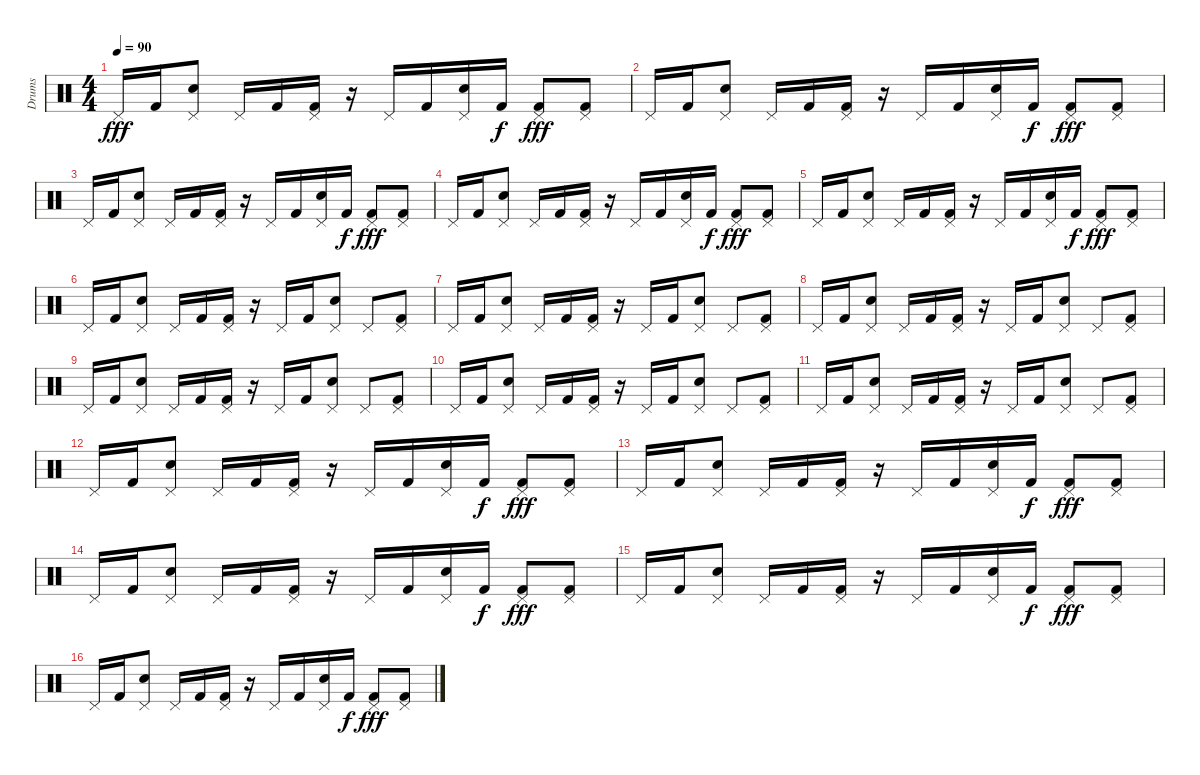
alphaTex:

\track ("Drums" "Drums") {instrument percussion}
\staff {score}
\articulation defaults
\ts (4 4)
\tempo 90
\clef neutral
\ks c "Pedal Hi-Hat (hit)".16{dy fff} "Kick (hit) 2".16
("Electric Snare (hit)" "Pedal Hi-Hat (hit)").8 "Pedal Hi-Hat (hit)".16 "Kick (hit) 2".16 ("Kick (hit) 2" "Pedal Hi-Hat (hit)").16 r.16 "Pedal Hi-Hat (hit)".16 "Kick (hit) 2".16 ("Pedal Hi-Hat (hit)" "Electric Snare (hit)").16 "Kick (hit) 2".16{dy f} ("Kick (hit) 2" "Pedal Hi-Hat (hit)").8{dy fff} ("Kick (hit) 2" "Pedal Hi-Hat (hit)").8 |
"Pedal Hi-Hat (hit)".16 "Kick (hit) 2".16 ("Electric Snare (hit)" "Pedal Hi-Hat (hit)").8 "Pedal Hi-Hat (hit)".16 "Kick (hit) 2".16 ("Kick (hit) 2" "Pedal Hi-Hat (hit)").16 r.16 "Pedal Hi-Hat (hit)".16 "Kick (hit) 2".16 ("Pedal Hi-Hat (hit)" "Electric Snare (hit)").16 "Kick (hit) 2".16{dy f} ("Kick (hit) 2" "Pedal Hi-Hat (hit)").8{dy fff} ("Kick (hit) 2" "Pedal Hi-Hat (hit)").8 |
"Pedal Hi-Hat (hit)".16 "Kick (hit) 2".16 ("Electric Snare (hit)" "Pedal Hi-Hat (hit)").8 "Pedal Hi-Hat (hit)".16 "Kick (hit) 2".16 ("Kick (hit) 2" "Pedal Hi-Hat (hit)").16 r.16 "Pedal Hi-Hat (hit)".16 "Kick (hit) 2".16 ("Pedal Hi-Hat (hit)" "Electric Snare (hit)").16 "Kick (hit) 2".16{dy f} ("Kick (hit) 2" "Pedal Hi-Hat (hit)").8{dy fff} ("Kick (hit) 2" "Pedal Hi-Hat (hit)").8 |
"Pedal Hi-Hat (hit)".16 "Kick (hit) 2".16 ("Electric Snare (hit)" "Pedal Hi-Hat (hit)").8 "Pedal Hi-Hat (hit)".16 "Kick (hit) 2".16 ("Kick (hit) 2" "Pedal Hi-Hat (hit)").16 r.16 "Pedal Hi-Hat (hit)".16 "Kick (hit) 2".16 ("Pedal Hi-Hat (hit)" "Electric Snare (hit)").16 "Kick (hit) 2".16{dy f} ("Kick (hit) 2" "Pedal Hi-Hat (hit)").8{dy fff} ("Kick (hit) 2" "Pedal Hi-Hat (hit)").8 |
"Pedal Hi-Hat (hit)".16 "Kick (hit) 2".16 ("Electric Snare (hit)" "Pedal Hi-Hat (hit)").8 "Pedal Hi-Hat (hit)".16 "Kick (hit) 2".16 ("Kick (hit) 2" "Pedal Hi-Hat (hit)").16 r.16 "Pedal Hi-Hat (hit)".16 "Kick (hit) 2".16 ("Pedal Hi-Hat (hit)" "Electric Snare (hit)").16 "Kick (hit) 2".16{dy f} ("Kick (hit) 2" "Pedal Hi-Hat (hit)").8{dy fff} ("Kick (hit) 2" "Pedal Hi-Hat (hit)").8 |
"Pedal Hi-Hat (hit)".16 "Kick (hit) 2".16 ("Electric Snare (hit)" "Pedal Hi-Hat (hit)").8 "Pedal Hi-Hat (hit)".16 "Kick (hit) 2".16 ("Kick (hit) 2" "Pedal Hi-Hat (hit)").16 r.16 "Pedal Hi-Hat (hit)".16 "Kick (hit) 2".16 ("Pedal Hi-Hat (hit)" "Electric Snare (hit)").8 "Pedal Hi-Hat (hit)".8 ("Kick (hit) 2" "Pedal Hi-Hat (hit)").8 |
"Pedal Hi-Hat (hit)".16 "Kick (hit) 2".16 ("Electric Snare (hit)" "Pedal Hi-Hat (hit)").8 "Pedal Hi-Hat (hit)".16 "Kick (hit) 2".16 ("Kick (hit) 2" "Pedal Hi-Hat (hit)").16 r.16 "Pedal Hi-Hat (hit)".16 "Kick (hit) 2".16 ("Pedal Hi-Hat (hit)" "Electric Snare (hit)").8 "Pedal Hi-Hat (hit)".8 ("Kick (hit) 2" "Pedal Hi-Hat (hit)").8 |
"Pedal Hi-Hat (hit)".16 "Kick (hit) 2".16 ("Electric Snare (hit)" "Pedal Hi-Hat (hit)").8 "Pedal Hi-Hat (hit)".16 "Kick (hit) 2".16 ("Kick (hit) 2" "Pedal Hi-Hat (hit)").16 r.16 "Pedal Hi-Hat (hit)".16 "Kick (hit) 2".16 ("Pedal Hi-Hat (hit)" "Electric Snare (hit)").8 "Pedal Hi-Hat (hit)".8 ("Kick (hit) 2" "Pedal Hi-Hat (hit)").8 |
"Pedal Hi-Hat (hit)".16 "Kick (hit) 2".16 ("Electric Snare (hit)" "Pedal Hi-Hat (hit)").8 "Pedal Hi-Hat (hit)".16 "Kick (hit) 2".16 ("Kick (hit) 2" "Pedal Hi-Hat (hit)").16 r.16 "Pedal Hi-Hat (hit)".16 "Kick (hit) 2".16 ("Pedal Hi-Hat (hit)" "Electric Snare (hit)").8 "Pedal Hi-Hat (hit)".8 ("Kick (hit) 2" "Pedal Hi-Hat (hit)").8 |
"Pedal Hi-Hat (hit)".16 "Kick (hit) 2".16 ("Electric Snare (hit)" "Pedal Hi-Hat (hit)").8 "Pedal Hi-Hat (hit)".16 "Kick (hit) 2".16 ("Kick (hit) 2" "Pedal Hi-Hat (hit)").16 r.16 "Pedal Hi-Hat (hit)".16 "Kick (hit) 2".16 ("Pedal Hi-Hat (hit)" "Electric Snare (hit)").8 "Pedal Hi-Hat (hit)".8 ("Kick (hit) 2" "Pedal Hi-Hat (hit)").8 |
"Pedal Hi-Hat (hit)".16 "Kick (hit) 2".16 ("Electric Snare (hit)" "Pedal Hi-Hat (hit)").8 "Pedal Hi-Hat (hit)".16 "Kick (hit) 2".16 ("Kick (hit) 2" "Pedal Hi-Hat (hit)").16 r.16 "Pedal Hi-Hat (hit)".16 "Kick (hit) 2".16 ("Pedal Hi-Hat (hit)" "Electric Snare (hit)").8 "Pedal Hi-Hat (hit)".8 ("Kick (hit) 2" "Pedal Hi-Hat (hit)").8 |
"Pedal Hi-Hat (hit)".16 "Kick (hit) 2".16 ("Electric Snare (hit)" "Pedal Hi-Hat (hit)").8 "Pedal Hi-Hat (hit)".16 "Kick (hit) 2".16 ("Kick (hit) 2" "Pedal Hi-Hat (hit)").16 r.16 "Pedal Hi-Hat (hit)".16 "Kick (hit) 2".16 ("Pedal Hi-Hat (hit)" "Electric Snare (hit)").16 "Kick (hit) 2".16{dy f} ("Kick (hit) 2" "Pedal Hi-Hat (hit)").8{dy fff} ("Kick (hit) 2" "Pedal Hi-Hat (hit)").8 |
"Pedal Hi-Hat (hit)".16 "Kick (hit) 2".16 ("Electric Snare (hit)" "Pedal Hi-Hat (hit)").8 "Pedal Hi-Hat (hit)".16 "Kick (hit) 2".16 ("Kick (hit) 2" "Pedal Hi-Hat (hit)").16 r.16 "Pedal Hi-Hat (hit)".16 "Kick (hit) 2".16 ("Pedal Hi-Hat (hit)" "Electric Snare (hit)").16 "Kick (hit) 2".16{dy f} ("Kick (hit) 2" "Pedal Hi-Hat (hit)").8{dy fff} ("Kick (hit) 2" "Pedal Hi-Hat (hit)").8 |
"Pedal Hi-Hat (hit)".16 "Kick (hit) 2".16 ("Electric Snare (hit)" "Pedal Hi-Hat (hit)").8 "Pedal Hi-Hat (hit)".16 "Kick (hit) 2".16 ("Kick (hit) 2" "Pedal Hi-Hat (hit)").16 r.16 "Pedal Hi-Hat (hit)".16 "Kick (hit) 2".16 ("Pedal Hi-Hat (hit)" "Electric Snare (hit)").16 "Kick (hit) 2".16{dy f} ("Kick (hit) 2" "Pedal Hi-Hat (hit)").8{dy fff} ("Kick (hit) 2" "Pedal Hi-Hat (hit)").8 |
"Pedal Hi-Hat (hit)".16 "Kick (hit) 2".16 ("Electric Snare (hit)" "Pedal Hi-Hat (hit)").8 "Pedal Hi-Hat (hit)".16 "Kick (hit) 2".16 ("Kick (hit) 2" "Pedal Hi-Hat (hit)").16 r.16 "Pedal Hi-Hat (hit)".16 "Kick (hit) 2".16 ("Pedal Hi-Hat (hit)" "Electric Snare (hit)").16 "Kick (hit) 2".16{dy f} ("Kick (hit) 2" "Pedal Hi-Hat (hit)").8{dy fff} ("Kick (hit) 2" "Pedal Hi-Hat (hit)").8 |
"Pedal Hi-Hat (hit)".16 "Kick (hit) 2".16 ("Electric Snare (hit)" "Pedal Hi-Hat (hit)").8 "Pedal Hi-Hat (hit)".16 "Kick (hit) 2".16 ("Kick (hit) 2" "Pedal Hi-Hat (hit)").16 r.16 "Pedal Hi-Hat (hit)".16 "Kick (hit) 2".16 ("Pedal Hi-Hat (hit)" "Electric Snare (hit)").16 "Kick (hit) 2".16{dy f} ("Kick (hit) 2" "Pedal Hi-Hat (hit)").8{dy fff} ("Kick (hit) 2" "Pedal Hi-Hat (hit)").8
